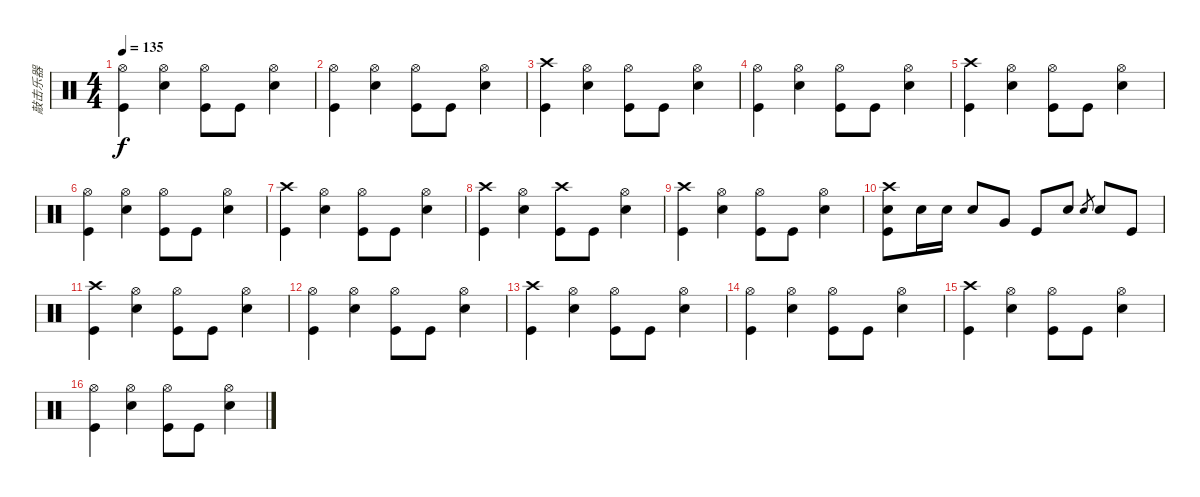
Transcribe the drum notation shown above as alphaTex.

\track ("敲击乐器" "敲击乐器") {instrument percussion}
\staff {score}
\articulation defaults
\ts (4 4)
\tempo 135
\clef neutral
\ks c
("Hi-Hat (open)" "Kick (hit)").4{dy f} ("Hi-Hat (open)" "Electric Snare (hit)").4 ("Hi-Hat (open)" "Kick (hit)").8 "Kick (hit)".8 ("Hi-Hat (open)" "Electric Snare (hit)").4 |
("Hi-Hat (open)" "Kick (hit)").4 ("Hi-Hat (open)" "Electric Snare (hit)").4 ("Hi-Hat (open)" "Kick (hit)").8 "Kick (hit)".8 ("Hi-Hat (open)" "Electric Snare (hit)").4 |
("Crash high (hit)" "Kick (hit)").4 ("Hi-Hat (open)" "Electric Snare (hit)").4 ("Hi-Hat (open)" "Kick (hit)").8 "Kick (hit)".8 ("Hi-Hat (open)" "Electric Snare (hit)").4 |
("Hi-Hat (open)" "Kick (hit)").4 ("Hi-Hat (open)" "Electric Snare (hit)").4 ("Hi-Hat (open)" "Kick (hit)").8 "Kick (hit)".8 ("Hi-Hat (open)" "Electric Snare (hit)").4 |
("Crash high (hit)" "Kick (hit)").4 ("Hi-Hat (open)" "Electric Snare (hit)").4 ("Hi-Hat (open)" "Kick (hit)").8 "Kick (hit)".8 ("Hi-Hat (open)" "Electric Snare (hit)").4 |
("Hi-Hat (open)" "Kick (hit)").4 ("Hi-Hat (open)" "Electric Snare (hit)").4 ("Hi-Hat (open)" "Kick (hit)").8 "Kick (hit)".8 ("Hi-Hat (open)" "Electric Snare (hit)").4 |
("Crash high (hit)" "Kick (hit)").4 ("Hi-Hat (open)" "Electric Snare (hit)").4 ("Hi-Hat (open)" "Kick (hit)").8 "Kick (hit)".8 ("Hi-Hat (open)" "Electric Snare (hit)").4 |
("Crash high (hit)" "Kick (hit)").4 ("Hi-Hat (open)" "Electric Snare (hit)").4 ("Crash high (hit)" "Kick (hit)").8 "Kick (hit)".8 ("Hi-Hat (open)" "Electric Snare (hit)").4 |
("Crash high (hit)" "Kick (hit)").4 ("Hi-Hat (open)" "Electric Snare (hit)").4 ("Hi-Hat (open)" "Kick (hit)").8 "Kick (hit)".8 ("Hi-Hat (open)" "Electric Snare (hit)").4 |
("Crash high (hit)" "Electric Snare (hit)" "Kick (hit)").8 "Electric Snare (hit)".16 "Electric Snare (hit)".16 "Electric Snare (hit)".8 "Very Low Tom (hit)".8 "Kick (hit)".8 "Electric Snare (hit)".8 "Electric Snare (hit)".8{gr} "Electric Snare (hit)".8 "Kick (hit)".8 |
("Crash high (hit)" "Kick (hit)").4 ("Hi-Hat (open)" "Electric Snare (hit)").4 ("Hi-Hat (open)" "Kick (hit)").8 "Kick (hit)".8 ("Hi-Hat (open)" "Electric Snare (hit)").4 |
("Hi-Hat (open)" "Kick (hit)").4 ("Hi-Hat (open)" "Electric Snare (hit)").4 ("Hi-Hat (open)" "Kick (hit)").8 "Kick (hit)".8 ("Hi-Hat (open)" "Electric Snare (hit)").4 |
("Crash high (hit)" "Kick (hit)").4 ("Hi-Hat (open)" "Electric Snare (hit)").4 ("Hi-Hat (open)" "Kick (hit)").8 "Kick (hit)".8 ("Hi-Hat (open)" "Electric Snare (hit)").4 |
("Hi-Hat (open)" "Kick (hit)").4 ("Hi-Hat (open)" "Electric Snare (hit)").4 ("Hi-Hat (open)" "Kick (hit)").8 "Kick (hit)".8 ("Hi-Hat (open)" "Electric Snare (hit)").4 |
("Crash high (hit)" "Kick (hit)").4 ("Hi-Hat (open)" "Electric Snare (hit)").4 ("Hi-Hat (open)" "Kick (hit)").8 "Kick (hit)".8 ("Hi-Hat (open)" "Electric Snare (hit)").4 |
("Hi-Hat (open)" "Kick (hit)").4 ("Hi-Hat (open)" "Electric Snare (hit)").4 ("Hi-Hat (open)" "Kick (hit)").8 "Kick (hit)".8 ("Hi-Hat (open)" "Electric Snare (hit)").4
